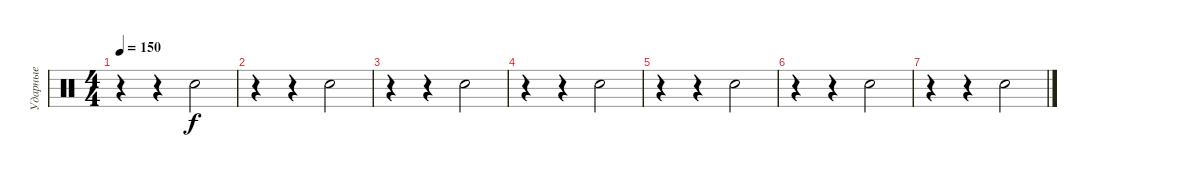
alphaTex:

\track ("Ударные" "Ударные") {instrument percussion}
\staff {score}
\articulation defaults
\ts (4 4)
\tempo 150
\clef neutral
\ks c
r.4{dy f} r.4 "Hand Clap (hit)".2 |
r.4 r.4 "Hand Clap (hit)".2 |
r.4 r.4 "Hand Clap (hit)".2 |
r.4 r.4 "Hand Clap (hit)".2 |
r.4 r.4 "Hand Clap (hit)".2 |
r.4 r.4 "Hand Clap (hit)".2 |
r.4 r.4 "Hand Clap (hit)".2
